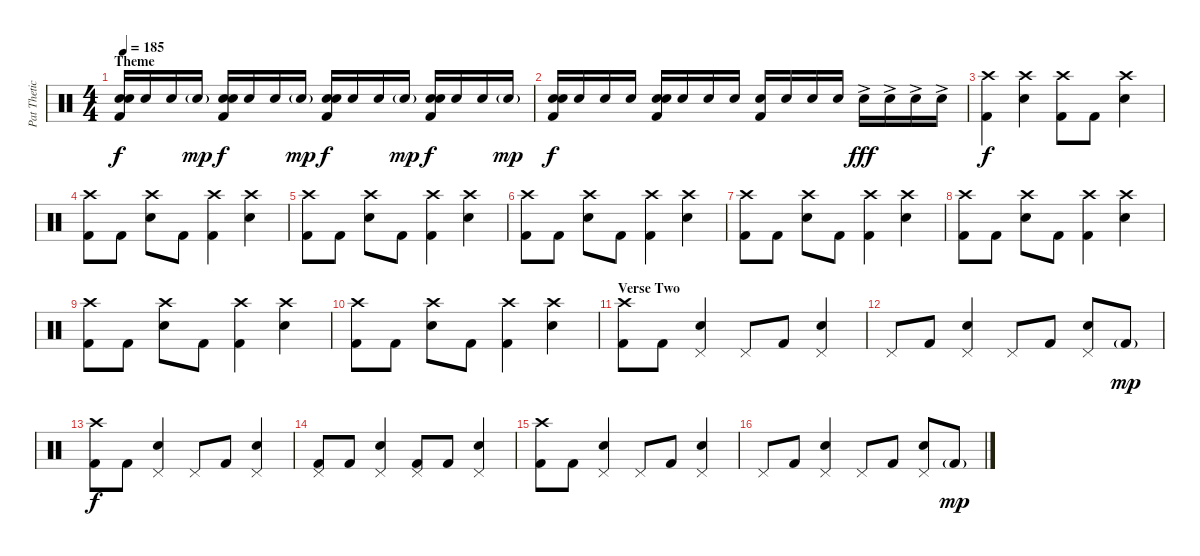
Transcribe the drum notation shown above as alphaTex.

\track ("Pat Thetic" "Pat Thetic") {instrument percussion}
\staff {score}
\articulation defaults
\ts (4 4)
\section ("" "Theme")
\tempo 185
\clef neutral
\ks c
("Electric Snare (hit)" "Electric Snare (hit)" "Kick (hit) 2").16{dy f} "Electric Snare (hit)".16 "Electric Snare (hit)".16 "Electric Snare (hit)"{g}.16{dy mp} ("Electric Snare (hit)" "Electric Snare (hit)" "Kick (hit) 2").16{dy f} "Electric Snare (hit)".16 "Electric Snare (hit)".16 "Electric Snare (hit)"{g}.16{dy mp} ("Electric Snare (hit)" "Electric Snare (hit)" "Kick (hit) 2").16{dy f} "Electric Snare (hit)".16 "Electric Snare (hit)".16 "Electric Snare (hit)"{g}.16{dy mp} ("Electric Snare (hit)" "Electric Snare (hit)" "Kick (hit) 2").16{dy f} "Electric Snare (hit)".16 "Electric Snare (hit)".16 "Electric Snare (hit)"{g}.16{dy mp} |
("Electric Snare (hit)" "Electric Snare (hit)" "Kick (hit) 2").16{dy f volume 14} "Electric Snare (hit)".16 "Electric Snare (hit)".16 "Electric Snare (hit)".16 ("Electric Snare (hit)" "Electric Snare (hit)" "Kick (hit) 2").16 "Electric Snare (hit)".16 "Electric Snare (hit)".16 "Electric Snare (hit)".16 ("Electric Snare (hit)" "Kick (hit) 2").16 "Electric Snare (hit)".16 "Electric Snare (hit)".16 "Electric Snare (hit)".16 "Electric Snare (hit)"{ac}.16{dy fff} "Electric Snare (hit)"{ac}.16 "Electric Snare (hit)"{ac}.16 "Electric Snare (hit)"{ac}.16 |
("Crash high (hit)" "Kick (hit) 2").4{dy f volume 12} ("Crash high (hit)" "Electric Snare (hit)").4 ("Crash high (hit)" "Kick (hit) 2").8 "Kick (hit) 2".8 ("Crash high (hit)" "Electric Snare (hit)").4 |
("Crash high (hit)" "Kick (hit) 2").8 "Kick (hit) 2".8 ("Crash high (hit)" "Electric Snare (hit)").8 "Kick (hit) 2".8 ("Crash high (hit)" "Kick (hit) 2").4 ("Crash high (hit)" "Electric Snare (hit)").4 |
("Crash high (hit)" "Kick (hit) 2").8 "Kick (hit) 2".8 ("Crash high (hit)" "Electric Snare (hit)").8 "Kick (hit) 2".8 ("Crash high (hit)" "Kick (hit) 2").4 ("Crash high (hit)" "Electric Snare (hit)").4 |
("Crash high (hit)" "Kick (hit) 2").8 "Kick (hit) 2".8 ("Crash high (hit)" "Electric Snare (hit)").8 "Kick (hit) 2".8 ("Crash high (hit)" "Kick (hit) 2").4 ("Crash high (hit)" "Electric Snare (hit)").4 |
("Crash high (hit)" "Kick (hit) 2").8 "Kick (hit) 2".8 ("Crash high (hit)" "Electric Snare (hit)").8 "Kick (hit) 2".8 ("Crash high (hit)" "Kick (hit) 2").4 ("Crash high (hit)" "Electric Snare (hit)").4 |
("Crash high (hit)" "Kick (hit) 2").8 "Kick (hit) 2".8 ("Crash high (hit)" "Electric Snare (hit)").8 "Kick (hit) 2".8 ("Crash high (hit)" "Kick (hit) 2").4 ("Crash high (hit)" "Electric Snare (hit)").4 |
("Crash high (hit)" "Kick (hit) 2").8 "Kick (hit) 2".8 ("Crash high (hit)" "Electric Snare (hit)").8 "Kick (hit) 2".8 ("Crash high (hit)" "Kick (hit) 2").4 ("Crash high (hit)" "Electric Snare (hit)").4 |
("Crash high (hit)" "Kick (hit) 2").8 "Kick (hit) 2".8 ("Crash high (hit)" "Electric Snare (hit)").8 "Kick (hit) 2".8 ("Crash high (hit)" "Kick (hit) 2").4 ("Crash high (hit)" "Electric Snare (hit)").4 |
\section ("" "Verse Two")
("Crash high (hit)" "Kick (hit) 2").8 "Kick (hit) 2".8 ("Pedal Hi-Hat (hit)" "Electric Snare (hit)").4 "Pedal Hi-Hat (hit)".8 "Kick (hit) 2".8 ("Pedal Hi-Hat (hit)" "Electric Snare (hit)").4 |
"Pedal Hi-Hat (hit)".8 "Kick (hit) 2".8 ("Pedal Hi-Hat (hit)" "Electric Snare (hit)").4 "Pedal Hi-Hat (hit)".8 "Kick (hit) 2".8 ("Pedal Hi-Hat (hit)" "Electric Snare (hit)").8 "Kick (hit) 2"{g}.8{dy mp} |
("Crash high (hit)" "Kick (hit) 2").8{dy f} "Kick (hit) 2".8 ("Pedal Hi-Hat (hit)" "Electric Snare (hit)").4 "Pedal Hi-Hat (hit)".8 "Kick (hit) 2".8 ("Pedal Hi-Hat (hit)" "Electric Snare (hit)").4 |
("Pedal Hi-Hat (hit)" "Kick (hit) 2").8 "Kick (hit) 2".8 ("Pedal Hi-Hat (hit)" "Electric Snare (hit)").4 ("Pedal Hi-Hat (hit)" "Kick (hit) 2").8 "Kick (hit) 2".8 ("Pedal Hi-Hat (hit)" "Electric Snare (hit)").4 |
("Crash high (hit)" "Kick (hit) 2").8 "Kick (hit) 2".8 ("Pedal Hi-Hat (hit)" "Electric Snare (hit)").4 "Pedal Hi-Hat (hit)".8 "Kick (hit) 2".8 ("Pedal Hi-Hat (hit)" "Electric Snare (hit)").4 |
"Pedal Hi-Hat (hit)".8 "Kick (hit) 2".8 ("Pedal Hi-Hat (hit)" "Electric Snare (hit)").4 "Pedal Hi-Hat (hit)".8 "Kick (hit) 2".8 ("Pedal Hi-Hat (hit)" "Electric Snare (hit)").8 "Kick (hit) 2"{g}.8{dy mp}
